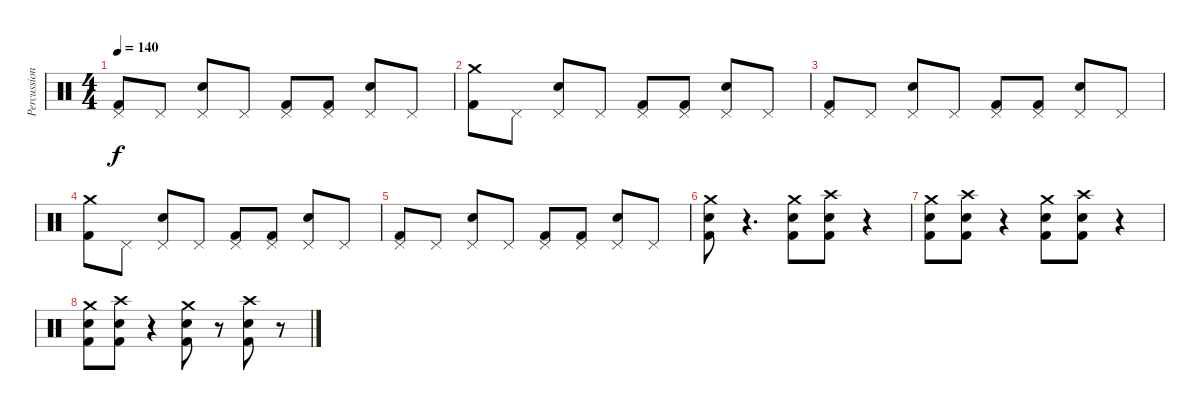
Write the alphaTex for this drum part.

\track ("Percussioni" "Percussion") {instrument percussion}
\staff {score}
\articulation defaults
\ts (4 4)
\tempo 140
\clef neutral
\ks c
("Pedal Hi-Hat (hit)" "Kick (hit) 2").8{dy f} "Pedal Hi-Hat (hit)".8 ("Pedal Hi-Hat (hit)" "Electric Snare (hit)").8 "Pedal Hi-Hat (hit)".8 ("Pedal Hi-Hat (hit)" "Kick (hit) 2").8 ("Pedal Hi-Hat (hit)" "Kick (hit) 2").8 ("Pedal Hi-Hat (hit)" "Electric Snare (hit)").8 "Pedal Hi-Hat (hit)".8 |
("Crash medium (hit)" "Kick (hit) 2").8 "Pedal Hi-Hat (hit)".8 ("Pedal Hi-Hat (hit)" "Electric Snare (hit)").8 "Pedal Hi-Hat (hit)".8 ("Pedal Hi-Hat (hit)" "Kick (hit) 2").8 ("Pedal Hi-Hat (hit)" "Kick (hit) 2").8 ("Pedal Hi-Hat (hit)" "Electric Snare (hit)").8 "Pedal Hi-Hat (hit)".8 |
("Pedal Hi-Hat (hit)" "Kick (hit) 2").8 "Pedal Hi-Hat (hit)".8 ("Pedal Hi-Hat (hit)" "Electric Snare (hit)").8 "Pedal Hi-Hat (hit)".8 ("Pedal Hi-Hat (hit)" "Kick (hit) 2").8 ("Pedal Hi-Hat (hit)" "Kick (hit) 2").8 ("Pedal Hi-Hat (hit)" "Electric Snare (hit)").8 "Pedal Hi-Hat (hit)".8 |
("Crash medium (hit)" "Kick (hit) 2").8 "Pedal Hi-Hat (hit)".8 ("Pedal Hi-Hat (hit)" "Electric Snare (hit)").8 "Pedal Hi-Hat (hit)".8 ("Pedal Hi-Hat (hit)" "Kick (hit) 2").8 ("Pedal Hi-Hat (hit)" "Kick (hit) 2").8 ("Pedal Hi-Hat (hit)" "Electric Snare (hit)").8 "Pedal Hi-Hat (hit)".8 |
("Pedal Hi-Hat (hit)" "Kick (hit) 2").8 "Pedal Hi-Hat (hit)".8 ("Pedal Hi-Hat (hit)" "Electric Snare (hit)").8 "Pedal Hi-Hat (hit)".8 ("Pedal Hi-Hat (hit)" "Kick (hit) 2").8 ("Pedal Hi-Hat (hit)" "Kick (hit) 2").8 ("Pedal Hi-Hat (hit)" "Electric Snare (hit)").8 "Pedal Hi-Hat (hit)".8 |
("Crash medium (hit)" "Electric Snare (hit)" "Kick (hit) 2").8 r.4{d} ("Crash medium (hit)" "Electric Snare (hit)" "Kick (hit) 2").8 ("Crash high (hit)" "Electric Snare (hit)" "Kick (hit) 2").8 r.4 |
("Crash medium (hit)" "Electric Snare (hit)" "Kick (hit) 2").8 ("Crash high (hit)" "Electric Snare (hit)" "Kick (hit) 2").8 r.4 ("Crash medium (hit)" "Electric Snare (hit)" "Kick (hit) 2").8 ("Crash high (hit)" "Electric Snare (hit)" "Kick (hit) 2").8 r.4 |
("Crash medium (hit)" "Electric Snare (hit)" "Kick (hit) 2").8 ("Crash high (hit)" "Electric Snare (hit)" "Kick (hit) 2").8 r.4 ("Crash medium (hit)" "Electric Snare (hit)" "Kick (hit) 2").8 r.8 ("Crash high (hit)" "Electric Snare (hit)" "Kick (hit) 2").8 r.8
